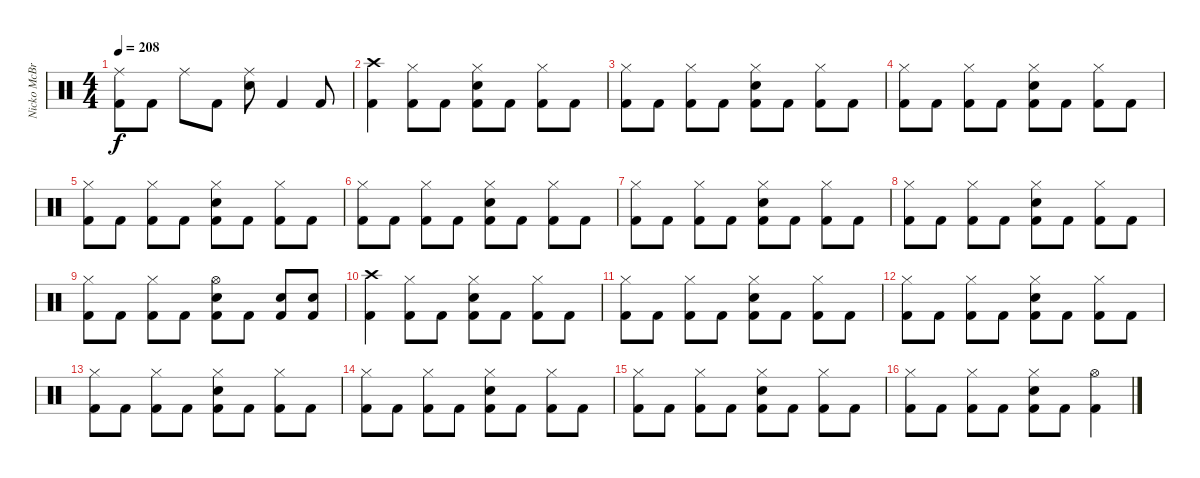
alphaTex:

\track ("Nicko McBrain" "Nicko McBr") {instrument percussion}
\staff {score}
\articulation defaults
\ts (4 4)
\tempo 208
\clef neutral
\ks c
("Ride (middle)" "Kick (hit) 2").8{dy f} "Kick (hit) 2".8 "Ride (middle)".8 "Kick (hit) 2".8 ("Ride (middle)" "Electric Snare (hit)").8 "Kick (hit) 2".4 "Kick (hit) 2".8 |
("Crash high (hit)" "Kick (hit) 2").4 ("Hi-Hat (closed)" "Kick (hit) 2").8 "Kick (hit) 2".8 ("Hi-Hat (closed)" "Electric Snare (hit)" "Kick (hit) 2").8 "Kick (hit) 2".8 ("Hi-Hat (closed)" "Kick (hit) 2").8 "Kick (hit) 2".8 |
("Hi-Hat (closed)" "Kick (hit) 2").8 "Kick (hit) 2".8 ("Hi-Hat (closed)" "Kick (hit) 2").8 "Kick (hit) 2".8 ("Hi-Hat (closed)" "Electric Snare (hit)" "Kick (hit) 2").8 "Kick (hit) 2".8 ("Hi-Hat (closed)" "Kick (hit) 2").8 "Kick (hit) 2".8 |
("Hi-Hat (closed)" "Kick (hit) 2").8 "Kick (hit) 2".8 ("Hi-Hat (closed)" "Kick (hit) 2").8 "Kick (hit) 2".8 ("Hi-Hat (closed)" "Electric Snare (hit)" "Kick (hit) 2").8 "Kick (hit) 2".8 ("Hi-Hat (closed)" "Kick (hit) 2").8 "Kick (hit) 2".8 |
("Hi-Hat (closed)" "Kick (hit) 2").8 "Kick (hit) 2".8 ("Hi-Hat (closed)" "Kick (hit) 2").8 "Kick (hit) 2".8 ("Hi-Hat (closed)" "Electric Snare (hit)" "Kick (hit) 2").8 "Kick (hit) 2".8 ("Hi-Hat (closed)" "Kick (hit) 2").8 "Kick (hit) 2".8 |
("Hi-Hat (closed)" "Kick (hit) 2").8 "Kick (hit) 2".8 ("Hi-Hat (closed)" "Kick (hit) 2").8 "Kick (hit) 2".8 ("Hi-Hat (closed)" "Electric Snare (hit)" "Kick (hit) 2").8 "Kick (hit) 2".8 ("Hi-Hat (closed)" "Kick (hit) 2").8 "Kick (hit) 2".8 |
("Hi-Hat (closed)" "Kick (hit) 2").8 "Kick (hit) 2".8 ("Hi-Hat (closed)" "Kick (hit) 2").8 "Kick (hit) 2".8 ("Hi-Hat (closed)" "Electric Snare (hit)" "Kick (hit) 2").8 "Kick (hit) 2".8 ("Hi-Hat (closed)" "Kick (hit) 2").8 "Kick (hit) 2".8 |
("Hi-Hat (closed)" "Kick (hit) 2").8 "Kick (hit) 2".8 ("Hi-Hat (closed)" "Kick (hit) 2").8 "Kick (hit) 2".8 ("Hi-Hat (closed)" "Electric Snare (hit)" "Kick (hit) 2").8 "Kick (hit) 2".8 ("Hi-Hat (closed)" "Kick (hit) 2").8 "Kick (hit) 2".8 |
("Hi-Hat (closed)" "Kick (hit) 2").8 "Kick (hit) 2".8 ("Hi-Hat (closed)" "Kick (hit) 2").8 "Kick (hit) 2".8 ("Hi-Hat (open)" "Electric Snare (hit)" "Kick (hit) 2").8 "Kick (hit) 2".8 ("Electric Snare (hit)" "Kick (hit) 2").8 ("Electric Snare (hit)" "Kick (hit) 2").8 |
("Crash high (hit)" "Kick (hit) 2").4 ("Hi-Hat (closed)" "Kick (hit) 2").8 "Kick (hit) 2".8 ("Hi-Hat (closed)" "Electric Snare (hit)" "Kick (hit) 2").8 "Kick (hit) 2".8 ("Hi-Hat (closed)" "Kick (hit) 2").8 "Kick (hit) 2".8 |
("Hi-Hat (closed)" "Kick (hit) 2").8 "Kick (hit) 2".8 ("Hi-Hat (closed)" "Kick (hit) 2").8 "Kick (hit) 2".8 ("Hi-Hat (closed)" "Electric Snare (hit)" "Kick (hit) 2").8 "Kick (hit) 2".8 ("Hi-Hat (closed)" "Kick (hit) 2").8 "Kick (hit) 2".8 |
("Hi-Hat (closed)" "Kick (hit) 2").8 "Kick (hit) 2".8 ("Hi-Hat (closed)" "Kick (hit) 2").8 "Kick (hit) 2".8 ("Hi-Hat (closed)" "Electric Snare (hit)" "Kick (hit) 2").8 "Kick (hit) 2".8 ("Hi-Hat (closed)" "Kick (hit) 2").8 "Kick (hit) 2".8 |
("Hi-Hat (closed)" "Kick (hit) 2").8 "Kick (hit) 2".8 ("Hi-Hat (closed)" "Kick (hit) 2").8 "Kick (hit) 2".8 ("Hi-Hat (closed)" "Electric Snare (hit)" "Kick (hit) 2").8 "Kick (hit) 2".8 ("Hi-Hat (closed)" "Kick (hit) 2").8 "Kick (hit) 2".8 |
("Hi-Hat (closed)" "Kick (hit) 2").8 "Kick (hit) 2".8 ("Hi-Hat (closed)" "Kick (hit) 2").8 "Kick (hit) 2".8 ("Hi-Hat (closed)" "Electric Snare (hit)" "Kick (hit) 2").8 "Kick (hit) 2".8 ("Hi-Hat (closed)" "Kick (hit) 2").8 "Kick (hit) 2".8 |
("Hi-Hat (closed)" "Kick (hit) 2").8 "Kick (hit) 2".8 ("Hi-Hat (closed)" "Kick (hit) 2").8 "Kick (hit) 2".8 ("Hi-Hat (closed)" "Electric Snare (hit)" "Kick (hit) 2").8 "Kick (hit) 2".8 ("Hi-Hat (closed)" "Kick (hit) 2").8 "Kick (hit) 2".8 |
("Hi-Hat (closed)" "Kick (hit) 2").8 "Kick (hit) 2".8 ("Hi-Hat (closed)" "Kick (hit) 2").8 "Kick (hit) 2".8 ("Hi-Hat (closed)" "Electric Snare (hit)" "Kick (hit) 2").8 "Kick (hit) 2".8 ("Hi-Hat (open)" "Kick (hit) 2").4
